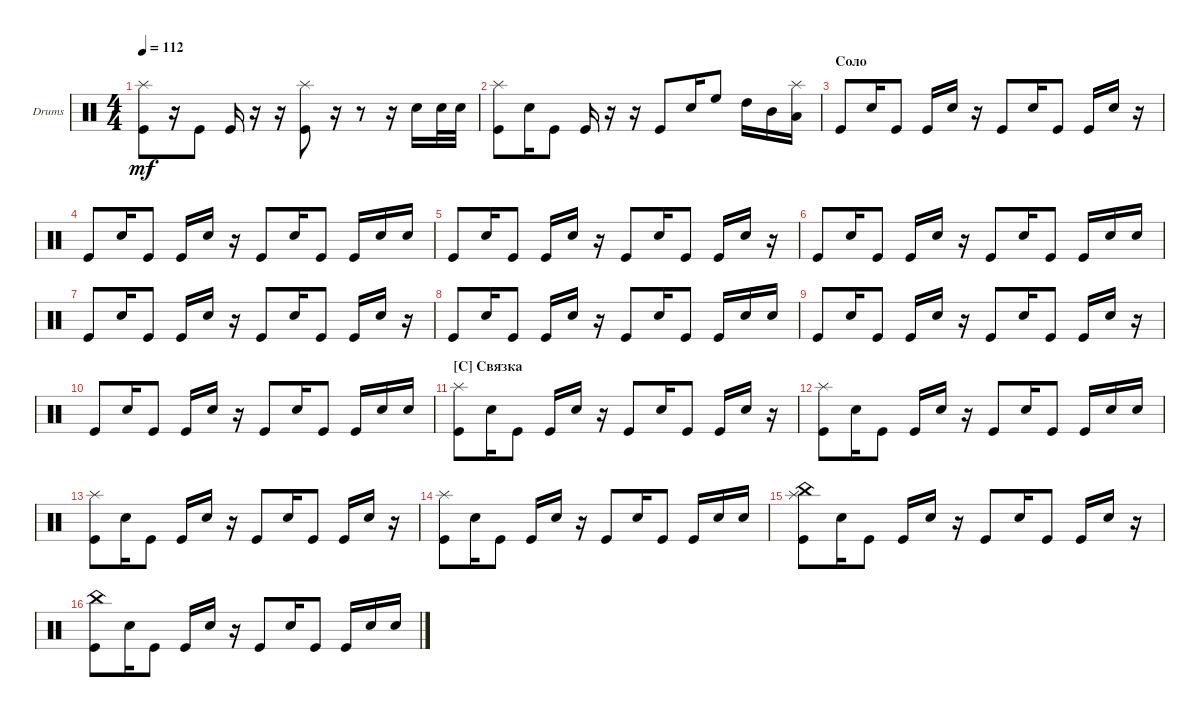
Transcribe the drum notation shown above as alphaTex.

\defaultSystemsLayout 4
\bracketExtendMode groupsimilarinstruments
\firstSystemTrackNameOrientation horizontal
\otherSystemsTrackNameOrientation horizontal
\track ("Drumkit" "Drums") {instrument percussion}
\staff {score}
\articulation defaults
\ts (4 4)
\tempo 112
\clef neutral
\ks c
("Kick (hit)" "Splash (hit)").8{dy mf} r.16 "Kick (hit)".8 "Kick (hit)".16 r.16 r.16 ("Kick (hit)" "Splash (hit)").8 r.16 r.8 r.16 "Snare (hit) 2".16 "Snare (hit) 2".32 "Snare (hit) 2".32 |
("Kick (hit)" "Splash (hit)").8 "Snare (hit) 2".16 "Kick (hit)".8 "Kick (hit)".16 r.16 r.16 "Kick (hit)".8 "Snare (hit) 2".16 "High Floor Tom (hit)".8 "High Tom (hit)".16 "Mid Tom (hit)".16 ("Low Tom (hit)" "Splash (hit)").16 |
\section ("" "Соло")
"Kick (hit)".8 "Snare (hit) 2".16 "Kick (hit)".8 "Kick (hit)".16 "Snare (hit) 2".16 r.16 "Kick (hit)".8 "Snare (hit) 2".16 "Kick (hit)".8 "Kick (hit)".16 "Snare (hit) 2".16 r.16 |
"Kick (hit)".8 "Snare (hit) 2".16 "Kick (hit)".8 "Kick (hit)".16 "Snare (hit) 2".16 r.16 "Kick (hit)".8 "Snare (hit) 2".16 "Kick (hit)".8 "Kick (hit)".16 "Snare (hit) 2".16 "Snare (hit) 2".16 |
"Kick (hit)".8 "Snare (hit) 2".16 "Kick (hit)".8 "Kick (hit)".16 "Snare (hit) 2".16 r.16 "Kick (hit)".8 "Snare (hit) 2".16 "Kick (hit)".8 "Kick (hit)".16 "Snare (hit) 2".16 r.16 |
"Kick (hit)".8 "Snare (hit) 2".16 "Kick (hit)".8 "Kick (hit)".16 "Snare (hit) 2".16 r.16 "Kick (hit)".8 "Snare (hit) 2".16 "Kick (hit)".8 "Kick (hit)".16 "Snare (hit) 2".16 "Snare (hit) 2".16 |
"Kick (hit)".8 "Snare (hit) 2".16 "Kick (hit)".8 "Kick (hit)".16 "Snare (hit) 2".16 r.16 "Kick (hit)".8 "Snare (hit) 2".16 "Kick (hit)".8 "Kick (hit)".16 "Snare (hit) 2".16 r.16 |
"Kick (hit)".8 "Snare (hit) 2".16 "Kick (hit)".8 "Kick (hit)".16 "Snare (hit) 2".16 r.16 "Kick (hit)".8 "Snare (hit) 2".16 "Kick (hit)".8 "Kick (hit)".16 "Snare (hit) 2".16 "Snare (hit) 2".16 |
"Kick (hit)".8 "Snare (hit) 2".16 "Kick (hit)".8 "Kick (hit)".16 "Snare (hit) 2".16 r.16 "Kick (hit)".8 "Snare (hit) 2".16 "Kick (hit)".8 "Kick (hit)".16 "Snare (hit) 2".16 r.16 |
"Kick (hit)".8 "Snare (hit) 2".16 "Kick (hit)".8 "Kick (hit)".16 "Snare (hit) 2".16 r.16 "Kick (hit)".8 "Snare (hit) 2".16 "Kick (hit)".8 "Kick (hit)".16 "Snare (hit) 2".16 "Snare (hit) 2".16 |
\section ("C" "Связка")
("Kick (hit)" "Splash (hit)").8 "Snare (hit) 2".16 "Kick (hit)".8 "Kick (hit)".16 "Snare (hit) 2".16 r.16 "Kick (hit)".8 "Snare (hit) 2".16 "Kick (hit)".8 "Kick (hit)".16 "Snare (hit) 2".16 r.16 |
("Kick (hit)" "Splash (hit)").8 "Snare (hit) 2".16 "Kick (hit)".8 "Kick (hit)".16 "Snare (hit) 2".16 r.16 "Kick (hit)".8 "Snare (hit) 2".16 "Kick (hit)".8 "Kick (hit)".16 "Snare (hit) 2".16 "Snare (hit) 2".16 |
("Kick (hit)" "Splash (hit)").8 "Snare (hit) 2".16 "Kick (hit)".8 "Kick (hit)".16 "Snare (hit) 2".16 r.16 "Kick (hit)".8 "Snare (hit) 2".16 "Kick (hit)".8 "Kick (hit)".16 "Snare (hit) 2".16 r.16 |
("Kick (hit)" "Splash (hit)").8 "Snare (hit) 2".16 "Kick (hit)".8 "Kick (hit)".16 "Snare (hit) 2".16 r.16 "Kick (hit)".8 "Snare (hit) 2".16 "Kick (hit)".8 "Kick (hit)".16 "Snare (hit) 2".16 "Snare (hit) 2".16 |
("Kick (hit)" "Splash (hit)" "China (hit)").8 "Snare (hit) 2".16 "Kick (hit)".8 "Kick (hit)".16 "Snare (hit) 2".16 r.16 "Kick (hit)".8 "Snare (hit) 2".16 "Kick (hit)".8 "Kick (hit)".16 "Snare (hit) 2".16 r.16 |
("Kick (hit)" "China (hit)").8 "Snare (hit) 2".16 "Kick (hit)".8 "Kick (hit)".16 "Snare (hit) 2".16 r.16 "Kick (hit)".8 "Snare (hit) 2".16 "Kick (hit)".8 "Kick (hit)".16 "Snare (hit) 2".16 "Snare (hit) 2".16
